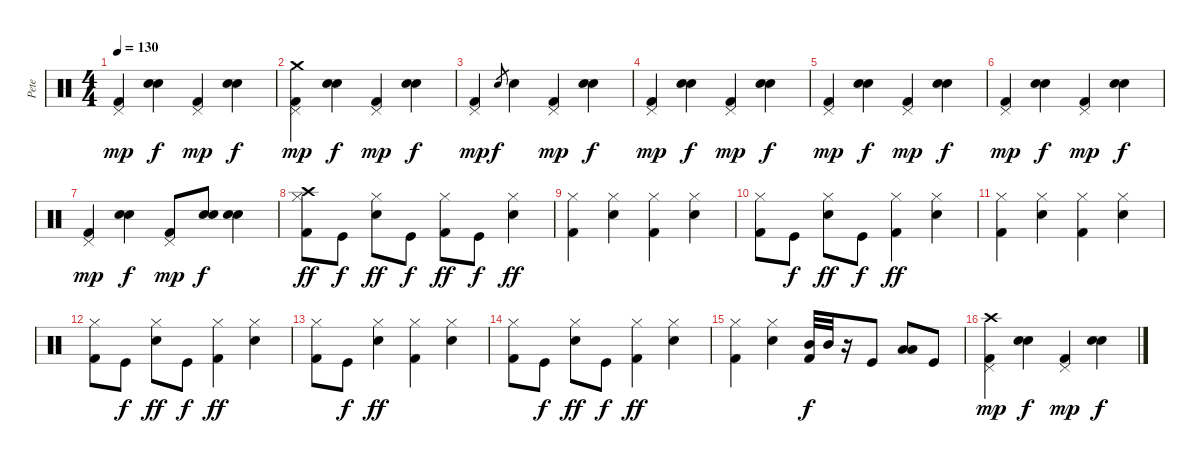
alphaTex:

\track ("Pete" "Pete") {instrument percussion}
\staff {score}
\articulation defaults
\ts (4 4)
\tempo 130
\clef neutral
\ks c
("Pedal Hi-Hat (hit)" "Kick (hit) 2").4{dy mp} ("Snare (hit) 2" "Electric Snare (hit)").4{dy f} ("Pedal Hi-Hat (hit)" "Kick (hit) 2").4{dy mp} ("Snare (hit) 2" "Electric Snare (hit)").4{dy f} |
("Pedal Hi-Hat (hit)" "Crash medium (hit)" "Kick (hit) 2").4{dy mp} ("Snare (hit) 2" "Electric Snare (hit)").4{dy f} ("Pedal Hi-Hat (hit)" "Kick (hit) 2").4{dy mp} ("Snare (hit) 2" "Electric Snare (hit)").4{dy f} |
("Pedal Hi-Hat (hit)" "Kick (hit) 2").4{dy mp} "Snare (hit) 2".8{gr dy f} "Electric Snare (hit)".4 ("Pedal Hi-Hat (hit)" "Kick (hit) 2").4{dy mp} ("Snare (hit) 2" "Electric Snare (hit)").4{dy f} |
("Pedal Hi-Hat (hit)" "Kick (hit) 2").4{dy mp} ("Snare (hit) 2" "Electric Snare (hit)").4{dy f} ("Pedal Hi-Hat (hit)" "Kick (hit) 2").4{dy mp} ("Snare (hit) 2" "Electric Snare (hit)").4{dy f} |
("Pedal Hi-Hat (hit)" "Kick (hit) 2").4{dy mp} ("Snare (hit) 2" "Electric Snare (hit)").4{dy f} ("Pedal Hi-Hat (hit)" "Kick (hit) 2").4{dy mp} ("Snare (hit) 2" "Electric Snare (hit)").4{dy f} |
("Pedal Hi-Hat (hit)" "Kick (hit) 2").4{dy mp} ("Snare (hit) 2" "Electric Snare (hit)").4{dy f} ("Pedal Hi-Hat (hit)" "Kick (hit) 2").4{dy mp} ("Snare (hit) 2" "Electric Snare (hit)").4{dy f} |
("Pedal Hi-Hat (hit)" "Kick (hit) 2").4{dy mp} ("Snare (hit) 2" "Electric Snare (hit)").4{dy f} ("Pedal Hi-Hat (hit)" "Kick (hit) 2").8{dy mp} ("Snare (hit) 2" "Electric Snare (hit)").8{dy f} ("Snare (hit) 2" "Electric Snare (hit)").4 |
("Hi-Hat (closed)" "Crash high (hit)" "Kick (hit) 2").8{dy ff} "Kick (hit)".8{dy f} ("Hi-Hat (closed)" "Snare (hit) 2").8{dy ff} "Kick (hit)".8{dy f} ("Hi-Hat (closed)" "Kick (hit) 2").8{dy ff} "Kick (hit)".8{dy f} ("Hi-Hat (closed)" "Snare (hit) 2").4{dy ff} |
("Hi-Hat (closed)" "Kick (hit) 2").4 ("Hi-Hat (closed)" "Snare (hit) 2").4 ("Hi-Hat (closed)" "Kick (hit) 2").4 ("Hi-Hat (closed)" "Snare (hit) 2").4 |
("Hi-Hat (closed)" "Kick (hit) 2").8 "Kick (hit)".8{dy f} ("Snare (hit) 2" "Hi-Hat (closed)").8{dy ff} "Kick (hit)".8{dy f} ("Hi-Hat (closed)" "Kick (hit) 2").4{dy ff} ("Hi-Hat (closed)" "Snare (hit) 2").4 |
("Hi-Hat (closed)" "Kick (hit) 2").4 ("Hi-Hat (closed)" "Snare (hit) 2").4 ("Hi-Hat (closed)" "Kick (hit) 2").4 ("Hi-Hat (closed)" "Snare (hit) 2").4 |
("Hi-Hat (closed)" "Kick (hit) 2").8 "Kick (hit)".8{dy f} ("Hi-Hat (closed)" "Snare (hit) 2").8{dy ff} "Kick (hit)".8{dy f} ("Hi-Hat (closed)" "Kick (hit) 2").4{dy ff} ("Hi-Hat (closed)" "Snare (hit) 2").4 |
("Hi-Hat (closed)" "Kick (hit) 2").8 "Kick (hit)".8{dy f} ("Hi-Hat (closed)" "Snare (hit) 2").4{dy ff} ("Hi-Hat (closed)" "Kick (hit) 2").4 ("Hi-Hat (closed)" "Snare (hit) 2").4 |
("Hi-Hat (closed)" "Kick (hit) 2").8 "Kick (hit)".8{dy f} ("Hi-Hat (closed)" "Snare (hit) 2").8{dy ff} "Kick (hit)".8{dy f} ("Hi-Hat (closed)" "Kick (hit) 2").4{dy ff} ("Hi-Hat (closed)" "Snare (hit) 2").4 |
("Hi-Hat (closed)" "Kick (hit) 2").4 ("Hi-Hat (closed)" "Snare (hit) 2").4 ("Kick (hit) 2" "Mid Tom (hit)").32{dy f} "Mid Tom (hit)".32 r.16 "Kick (hit)".8 ("Low Tom (hit)" "Low Tom (hit)").8 "Kick (hit)".8 |
("Crash high (hit)" "Pedal Hi-Hat (hit)" "Kick (hit) 2").4{dy mp} ("Snare (hit) 2" "Electric Snare (hit)").4{dy f} ("Pedal Hi-Hat (hit)" "Kick (hit) 2").4{dy mp} ("Snare (hit) 2" "Electric Snare (hit)").4{dy f}
